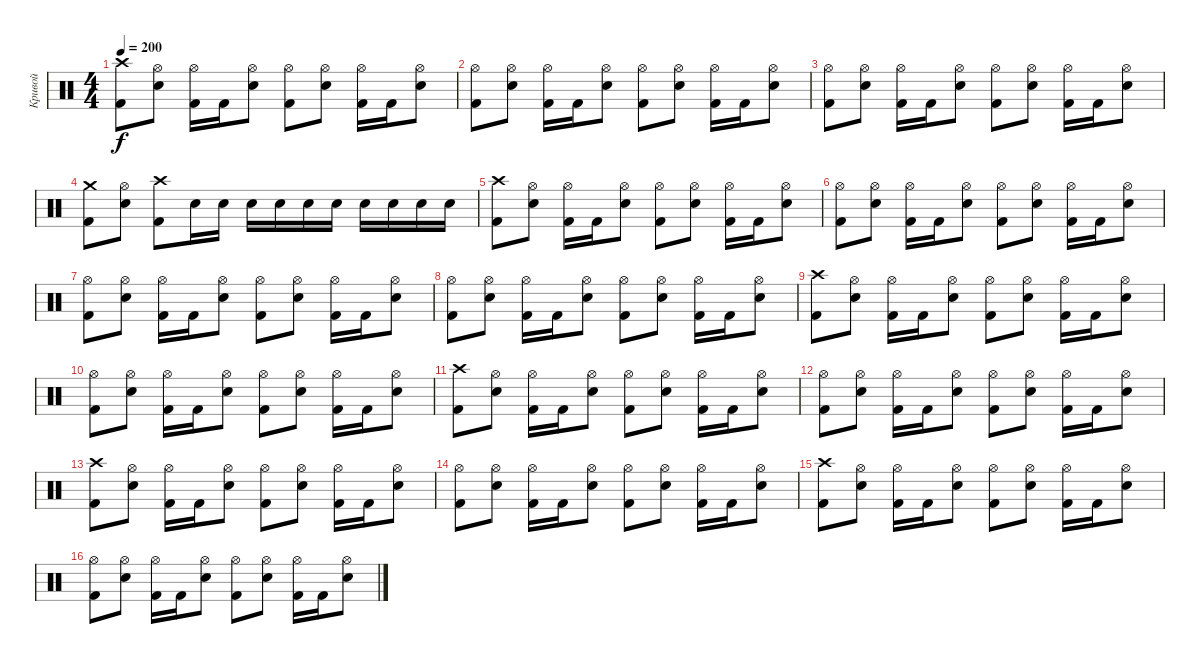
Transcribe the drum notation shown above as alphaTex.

\track ("Кривой" "Кривой") {instrument percussion}
\staff {score}
\articulation defaults
\ts (4 4)
\tempo 200
\clef neutral
\ks c
("Kick (hit) 2" "Crash high (hit)").8{dy f} ("Electric Snare (hit)" "Hi-Hat (open)").8 ("Kick (hit) 2" "Hi-Hat (open)").16 "Kick (hit) 2".16 ("Electric Snare (hit)" "Hi-Hat (open)").8 ("Kick (hit) 2" "Hi-Hat (open)").8 ("Electric Snare (hit)" "Hi-Hat (open)").8 ("Kick (hit) 2" "Hi-Hat (open)").16 "Kick (hit) 2".16 ("Electric Snare (hit)" "Hi-Hat (open)").8 |
("Kick (hit) 2" "Hi-Hat (open)").8 ("Electric Snare (hit)" "Hi-Hat (open)").8 ("Kick (hit) 2" "Hi-Hat (open)").16 "Kick (hit) 2".16 ("Electric Snare (hit)" "Hi-Hat (open)").8 ("Kick (hit) 2" "Hi-Hat (open)").8 ("Electric Snare (hit)" "Hi-Hat (open)").8 ("Kick (hit) 2" "Hi-Hat (open)").16 "Kick (hit) 2".16 ("Electric Snare (hit)" "Hi-Hat (open)").8 |
("Kick (hit) 2" "Hi-Hat (open)").8 ("Electric Snare (hit)" "Hi-Hat (open)").8 ("Kick (hit) 2" "Hi-Hat (open)").16 "Kick (hit) 2".16 ("Electric Snare (hit)" "Hi-Hat (open)").8 ("Kick (hit) 2" "Hi-Hat (open)").8 ("Electric Snare (hit)" "Hi-Hat (open)").8 ("Kick (hit) 2" "Hi-Hat (open)").16 "Kick (hit) 2".16 ("Electric Snare (hit)" "Hi-Hat (open)").8 |
("Kick (hit) 2" "Crash medium (hit)").8 ("Electric Snare (hit)" "Hi-Hat (open)").8 ("Kick (hit) 2" "Crash high (hit)").8 "Electric Snare (hit)".16 "Electric Snare (hit)".16 "Electric Snare (hit)".16 "Electric Snare (hit)".16 "Electric Snare (hit)".16 "Electric Snare (hit)".16 "Electric Snare (hit)".16 "Electric Snare (hit)".16 "Electric Snare (hit)".16 "Electric Snare (hit)".16 |
("Kick (hit) 2" "Crash high (hit)").8 ("Electric Snare (hit)" "Hi-Hat (open)").8 ("Kick (hit) 2" "Hi-Hat (open)").16 "Kick (hit) 2".16 ("Electric Snare (hit)" "Hi-Hat (open)").8 ("Kick (hit) 2" "Hi-Hat (open)").8 ("Electric Snare (hit)" "Hi-Hat (open)").8 ("Kick (hit) 2" "Hi-Hat (open)").16 "Kick (hit) 2".16 ("Electric Snare (hit)" "Hi-Hat (open)").8 |
("Kick (hit) 2" "Hi-Hat (open)").8 ("Electric Snare (hit)" "Hi-Hat (open)").8 ("Kick (hit) 2" "Hi-Hat (open)").16 "Kick (hit) 2".16 ("Electric Snare (hit)" "Hi-Hat (open)").8 ("Kick (hit) 2" "Hi-Hat (open)").8 ("Electric Snare (hit)" "Hi-Hat (open)").8 ("Kick (hit) 2" "Hi-Hat (open)").16 "Kick (hit) 2".16 ("Electric Snare (hit)" "Hi-Hat (open)").8 |
("Kick (hit) 2" "Hi-Hat (open)").8 ("Electric Snare (hit)" "Hi-Hat (open)").8 ("Kick (hit) 2" "Hi-Hat (open)").16 "Kick (hit) 2".16 ("Electric Snare (hit)" "Hi-Hat (open)").8 ("Kick (hit) 2" "Hi-Hat (open)").8 ("Electric Snare (hit)" "Hi-Hat (open)").8 ("Kick (hit) 2" "Hi-Hat (open)").16 "Kick (hit) 2".16 ("Electric Snare (hit)" "Hi-Hat (open)").8 |
("Kick (hit) 2" "Hi-Hat (open)").8 ("Electric Snare (hit)" "Hi-Hat (open)").8 ("Kick (hit) 2" "Hi-Hat (open)").16 "Kick (hit) 2".16 ("Electric Snare (hit)" "Hi-Hat (open)").8 ("Kick (hit) 2" "Hi-Hat (open)").8 ("Electric Snare (hit)" "Hi-Hat (open)").8 ("Kick (hit) 2" "Hi-Hat (open)").16 "Kick (hit) 2".16 ("Electric Snare (hit)" "Hi-Hat (open)").8 |
("Kick (hit) 2" "Crash high (hit)").8 ("Electric Snare (hit)" "Hi-Hat (open)").8 ("Kick (hit) 2" "Hi-Hat (open)").16 "Kick (hit) 2".16 ("Electric Snare (hit)" "Hi-Hat (open)").8 ("Kick (hit) 2" "Hi-Hat (open)").8 ("Electric Snare (hit)" "Hi-Hat (open)").8 ("Kick (hit) 2" "Hi-Hat (open)").16 "Kick (hit) 2".16 ("Electric Snare (hit)" "Hi-Hat (open)").8 |
("Kick (hit) 2" "Hi-Hat (open)").8 ("Electric Snare (hit)" "Hi-Hat (open)").8 ("Kick (hit) 2" "Hi-Hat (open)").16 "Kick (hit) 2".16 ("Electric Snare (hit)" "Hi-Hat (open)").8 ("Kick (hit) 2" "Hi-Hat (open)").8 ("Electric Snare (hit)" "Hi-Hat (open)").8 ("Kick (hit) 2" "Hi-Hat (open)").16 "Kick (hit) 2".16 ("Electric Snare (hit)" "Hi-Hat (open)").8 |
("Kick (hit) 2" "Crash high (hit)").8 ("Electric Snare (hit)" "Hi-Hat (open)").8 ("Kick (hit) 2" "Hi-Hat (open)").16 "Kick (hit) 2".16 ("Electric Snare (hit)" "Hi-Hat (open)").8 ("Kick (hit) 2" "Hi-Hat (open)").8 ("Electric Snare (hit)" "Hi-Hat (open)").8 ("Kick (hit) 2" "Hi-Hat (open)").16 "Kick (hit) 2".16 ("Electric Snare (hit)" "Hi-Hat (open)").8 |
("Kick (hit) 2" "Hi-Hat (open)").8 ("Electric Snare (hit)" "Hi-Hat (open)").8 ("Kick (hit) 2" "Hi-Hat (open)").16 "Kick (hit) 2".16 ("Electric Snare (hit)" "Hi-Hat (open)").8 ("Kick (hit) 2" "Hi-Hat (open)").8 ("Electric Snare (hit)" "Hi-Hat (open)").8 ("Kick (hit) 2" "Hi-Hat (open)").16 "Kick (hit) 2".16 ("Electric Snare (hit)" "Hi-Hat (open)").8 |
("Kick (hit) 2" "Crash high (hit)").8 ("Electric Snare (hit)" "Hi-Hat (open)").8 ("Kick (hit) 2" "Hi-Hat (open)").16 "Kick (hit) 2".16 ("Electric Snare (hit)" "Hi-Hat (open)").8 ("Kick (hit) 2" "Hi-Hat (open)").8 ("Electric Snare (hit)" "Hi-Hat (open)").8 ("Kick (hit) 2" "Hi-Hat (open)").16 "Kick (hit) 2".16 ("Electric Snare (hit)" "Hi-Hat (open)").8 |
("Kick (hit) 2" "Hi-Hat (open)").8 ("Electric Snare (hit)" "Hi-Hat (open)").8 ("Kick (hit) 2" "Hi-Hat (open)").16 "Kick (hit) 2".16 ("Electric Snare (hit)" "Hi-Hat (open)").8 ("Kick (hit) 2" "Hi-Hat (open)").8 ("Electric Snare (hit)" "Hi-Hat (open)").8 ("Kick (hit) 2" "Hi-Hat (open)").16 "Kick (hit) 2".16 ("Electric Snare (hit)" "Hi-Hat (open)").8 |
("Kick (hit) 2" "Crash high (hit)").8 ("Electric Snare (hit)" "Hi-Hat (open)").8 ("Kick (hit) 2" "Hi-Hat (open)").16 "Kick (hit) 2".16 ("Electric Snare (hit)" "Hi-Hat (open)").8 ("Kick (hit) 2" "Hi-Hat (open)").8 ("Electric Snare (hit)" "Hi-Hat (open)").8 ("Kick (hit) 2" "Hi-Hat (open)").16 "Kick (hit) 2".16 ("Electric Snare (hit)" "Hi-Hat (open)").8 |
("Kick (hit) 2" "Hi-Hat (open)").8 ("Electric Snare (hit)" "Hi-Hat (open)").8 ("Kick (hit) 2" "Hi-Hat (open)").16 "Kick (hit) 2".16 ("Electric Snare (hit)" "Hi-Hat (open)").8 ("Kick (hit) 2" "Hi-Hat (open)").8 ("Electric Snare (hit)" "Hi-Hat (open)").8 ("Kick (hit) 2" "Hi-Hat (open)").16 "Kick (hit) 2".16 ("Electric Snare (hit)" "Hi-Hat (open)").8
